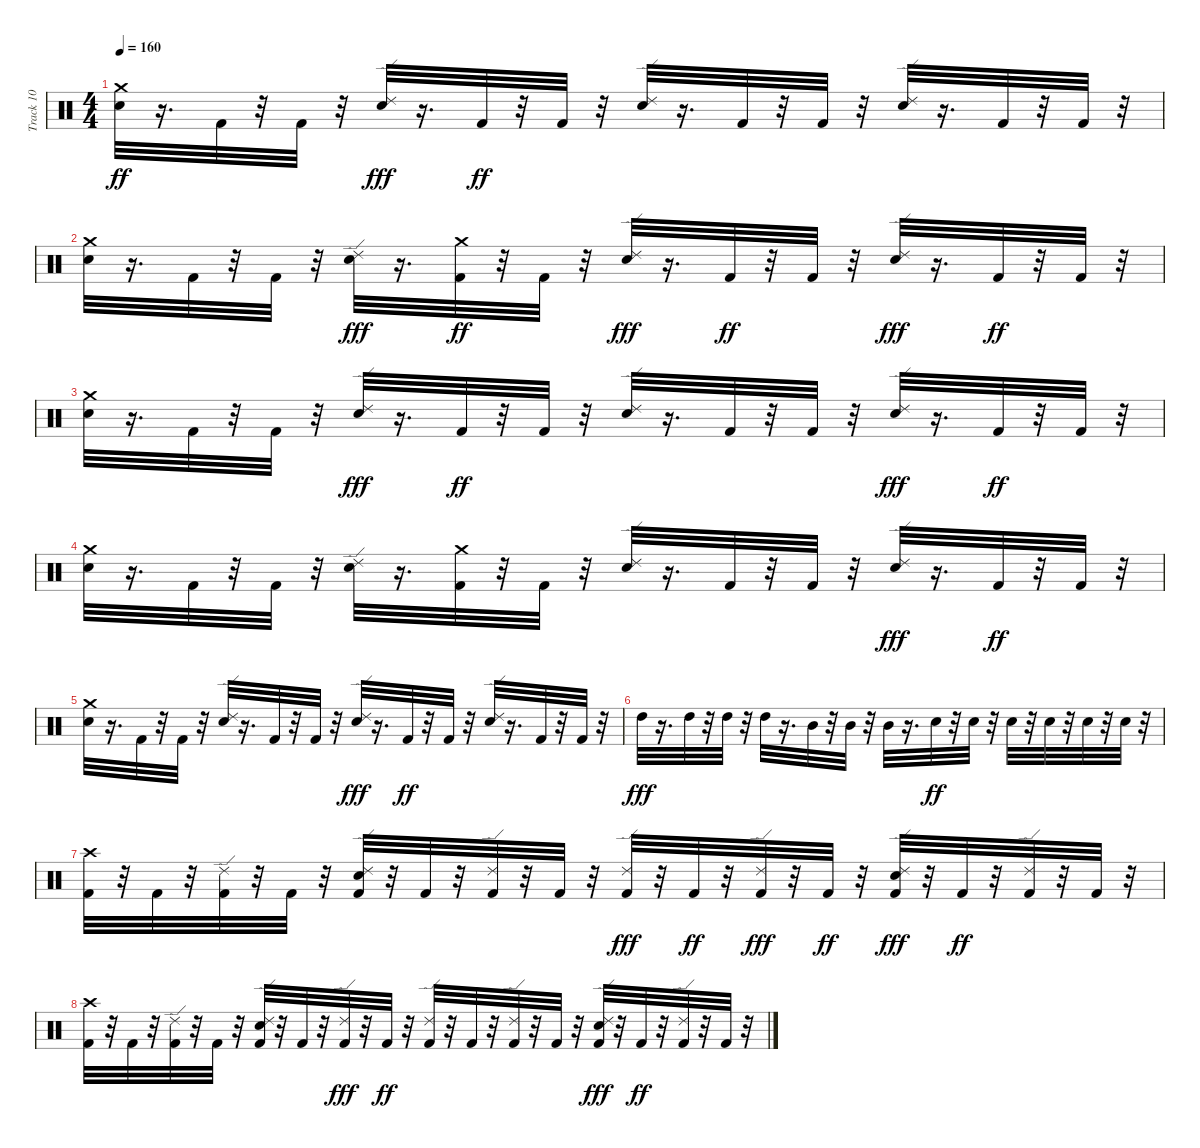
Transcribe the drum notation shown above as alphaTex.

\track ("Track 10" "Track 10") {instrument percussion}
\staff {score}
\articulation defaults
\ts (4 4)
\tempo 160
\clef neutral
\ks c
("Crash medium (hit)" "Electric Snare (hit)").32{dy ff} r.16{d} "Kick (hit) 2".32 r.32 "Kick (hit) 2".32 r.32 ("Electric Snare (hit)" "Ride (edge) 2").32{dy fff} r.16{d} "Kick (hit) 2".32{dy ff} r.32 "Kick (hit) 2".32 r.32 ("Ride (edge) 2" "Electric Snare (hit)").32 r.16{d} "Kick (hit) 2".32 r.32 "Kick (hit) 2".32 r.32 ("Ride (edge) 2" "Electric Snare (hit)").32 r.16{d} "Kick (hit) 2".32 r.32 "Kick (hit) 2".32 r.32 |
("Crash medium (hit)" "Electric Snare (hit)").32 r.16{d} "Kick (hit) 2".32 r.32 "Kick (hit) 2".32 r.32 ("Electric Snare (hit)" "Ride (edge) 2").32{dy fff} r.16{d} ("Kick (hit) 2" "Crash medium (hit)").32{dy ff} r.32 "Kick (hit) 2".32 r.32 ("Electric Snare (hit)" "Ride (edge) 2").32{dy fff} r.16{d} "Kick (hit) 2".32{dy ff} r.32 "Kick (hit) 2".32 r.32 ("Electric Snare (hit)" "Ride (edge) 2").32{dy fff} r.16{d} "Kick (hit) 2".32{dy ff} r.32 "Kick (hit) 2".32 r.32 |
("Crash medium (hit)" "Electric Snare (hit)").32 r.16{d} "Kick (hit) 2".32 r.32 "Kick (hit) 2".32 r.32 ("Electric Snare (hit)" "Ride (edge) 2").32{dy fff} r.16{d} "Kick (hit) 2".32{dy ff} r.32 "Kick (hit) 2".32 r.32 ("Ride (edge) 2" "Electric Snare (hit)").32 r.16{d} "Kick (hit) 2".32 r.32 "Kick (hit) 2".32 r.32 ("Electric Snare (hit)" "Ride (edge) 2").32{dy fff} r.16{d} "Kick (hit) 2".32{dy ff} r.32 "Kick (hit) 2".32 r.32 |
("Electric Snare (hit)" "Crash medium (hit)").32 r.16{d} "Kick (hit) 2".32 r.32 "Kick (hit) 2".32 r.32 ("Ride (edge) 2" "Electric Snare (hit)").32 r.16{d} ("Crash medium (hit)" "Kick (hit) 2").32 r.32 "Kick (hit) 2".32 r.32 ("Ride (edge) 2" "Electric Snare (hit)").32 r.16{d} "Kick (hit) 2".32 r.32 "Kick (hit) 2".32 r.32 ("Electric Snare (hit)" "Ride (edge) 2").32{dy fff} r.16{d} "Kick (hit) 2".32{dy ff} r.32 "Kick (hit) 2".32 r.32 |
("Crash medium (hit)" "Electric Snare (hit)").32 r.16{d} "Kick (hit) 2".32 r.32 "Kick (hit) 2".32 r.32 ("Ride (edge) 2" "Electric Snare (hit)").32 r.16{d} "Kick (hit) 2".32 r.32 "Kick (hit) 2".32 r.32 ("Electric Snare (hit)" "Ride (edge) 2").32{dy fff} r.16{d} "Kick (hit) 2".32{dy ff} r.32 "Kick (hit) 2".32 r.32 ("Ride (edge) 2" "Electric Snare (hit)").32 r.16{d} "Kick (hit) 2".32 r.32 "Kick (hit) 2".32 r.32 |
"High Tom (hit)".32{dy fff} r.16{d} "High Tom (hit)".32 r.32 "High Tom (hit)".32 r.32 "High Tom (hit)".32 r.16{d} "Mid Tom (hit)".32 r.32 "Mid Tom (hit)".32 r.32 "Mid Tom (hit)".32 r.16{d} "Electric Snare (hit)".32{dy ff} r.32 "Electric Snare (hit)".32 r.32 "Electric Snare (hit)".32 r.32 "Electric Snare (hit)".32 r.32 "Electric Snare (hit)".32 r.32 "Electric Snare (hit)".32 r.32 |
("Crash high (hit)" "Kick (hit) 2").32 r.32 "Kick (hit) 2".32 r.32 ("Ride (edge) 2" "Kick (hit) 2").32 r.32 "Kick (hit) 2".32 r.32 ("Electric Snare (hit)" "Ride (edge) 2" "Kick (hit) 2").32 r.32 "Kick (hit) 2".32 r.32 ("Ride (edge) 2" "Kick (hit) 2").32 r.32 "Kick (hit) 2".32 r.32 ("Kick (hit) 2" "Ride (edge) 2").32{dy fff} r.32 "Kick (hit) 2".32{dy ff} r.32 ("Kick (hit) 2" "Ride (edge) 2").32{dy fff} r.32 "Kick (hit) 2".32{dy ff} r.32 ("Electric Snare (hit)" "Kick (hit) 2" "Ride (edge) 2").32{dy fff} r.32 "Kick (hit) 2".32{dy ff} r.32 ("Ride (edge) 2" "Kick (hit) 2").32 r.32 "Kick (hit) 2".32 r.32 |
("Crash high (hit)" "Kick (hit) 2").32 r.32 "Kick (hit) 2".32 r.32 ("Ride (edge) 2" "Kick (hit) 2").32 r.32 "Kick (hit) 2".32 r.32 ("Kick (hit) 2" "Ride (edge) 2" "Electric Snare (hit)").32 r.32 "Kick (hit) 2".32 r.32 ("Kick (hit) 2" "Ride (edge) 2").32{dy fff} r.32 "Kick (hit) 2".32{dy ff} r.32 ("Ride (edge) 2" "Kick (hit) 2").32 r.32 "Kick (hit) 2".32 r.32 ("Ride (edge) 2" "Kick (hit) 2").32 r.32 "Kick (hit) 2".32 r.32 ("Kick (hit) 2" "Electric Snare (hit)" "Ride (edge) 2").32{dy fff} r.32 "Kick (hit) 2".32{dy ff} r.32 ("Ride (edge) 2" "Kick (hit) 2").32 r.32 "Kick (hit) 2".32 r.32
